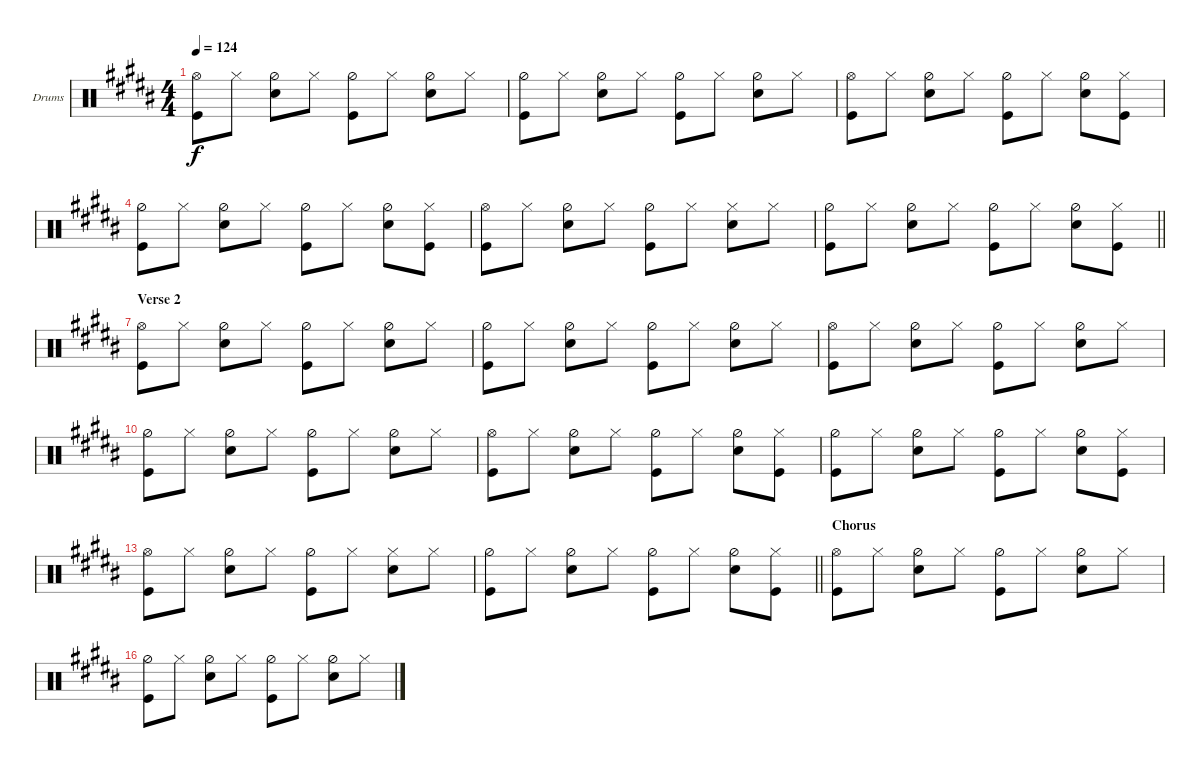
\bracketExtendMode nobrackets
\firstSystemTrackNameOrientation horizontal
\otherSystemsTrackNameOrientation horizontal
\defaultBarNumberDisplay FirstOfSystem
\track ("Drumkit" "Drums") {instrument percussion}
\staff {score}
\articulation defaults
\ts (4 4)
\tempo 124
\clef neutral
\ks g#minor
("Kick (hit)" "Hi-Hat (open)").8{dy f} "Hi-Hat (closed)".8 ("Hi-Hat (half)" "Snare (hit) 2").8 "Hi-Hat (closed)".8 ("Hi-Hat (half)" "Kick (hit)").8 "Hi-Hat (closed)".8 ("Hi-Hat (half)" "Snare (hit) 2").8 "Hi-Hat (closed)".8 |
("Kick (hit)" "Hi-Hat (half)").8 "Hi-Hat (closed)".8 ("Hi-Hat (half)" "Snare (hit) 2").8 "Hi-Hat (closed)".8 ("Hi-Hat (half)" "Kick (hit)").8 "Hi-Hat (closed)".8 ("Hi-Hat (half)" "Snare (hit) 2").8 "Hi-Hat (closed)".8 |
\ks b
("Kick (hit)" "Hi-Hat (open)").8 "Hi-Hat (closed)".8 ("Hi-Hat (half)" "Snare (hit) 2").8 "Hi-Hat (closed)".8 ("Hi-Hat (half)" "Kick (hit)").8 "Hi-Hat (closed)".8 ("Hi-Hat (half)" "Snare (hit) 2").8 ("Hi-Hat (closed)" "Kick (hit)").8 |
\ks g#minor
("Kick (hit)" "Hi-Hat (half)").8 "Hi-Hat (closed)".8 ("Hi-Hat (half)" "Snare (hit) 2").8 "Hi-Hat (closed)".8 ("Hi-Hat (half)" "Kick (hit)").8 "Hi-Hat (closed)".8 ("Hi-Hat (half)" "Snare (hit) 2").8 ("Hi-Hat (closed)" "Kick (hit)").8 |
("Kick (hit)" "Hi-Hat (open)").8 "Hi-Hat (closed)".8 ("Hi-Hat (half)" "Snare (hit) 2").8 "Hi-Hat (closed)".8 ("Hi-Hat (half)" "Kick (hit)").8 "Hi-Hat (closed)".8 ("Hi-Hat (closed)" "Snare (hit) 2").8 "Hi-Hat (closed)".8 |
\barLineRight lightlight
("Kick (hit)" "Hi-Hat (half)").8 "Hi-Hat (closed)".8 ("Hi-Hat (half)" "Snare (hit) 2").8 "Hi-Hat (closed)".8 ("Hi-Hat (half)" "Kick (hit)").8 "Hi-Hat (closed)".8 ("Hi-Hat (half)" "Snare (hit) 2").8 ("Hi-Hat (closed)" "Kick (hit)").8 |
\section ("" "Verse 2")
\ks b
("Kick (hit)" "Hi-Hat (open)").8 "Hi-Hat (closed)".8 ("Hi-Hat (half)" "Snare (hit) 2").8 "Hi-Hat (closed)".8 ("Hi-Hat (half)" "Kick (hit)").8 "Hi-Hat (closed)".8 ("Hi-Hat (half)" "Snare (hit) 2").8 "Hi-Hat (closed)".8 |
\ks g#minor
("Kick (hit)" "Hi-Hat (half)").8 "Hi-Hat (closed)".8 ("Hi-Hat (half)" "Snare (hit) 2").8 "Hi-Hat (closed)".8 ("Hi-Hat (half)" "Kick (hit)").8 "Hi-Hat (closed)".8 ("Hi-Hat (half)" "Snare (hit) 2").8 "Hi-Hat (closed)".8 |
("Kick (hit)" "Hi-Hat (open)").8 "Hi-Hat (closed)".8 ("Hi-Hat (half)" "Snare (hit) 2").8 "Hi-Hat (closed)".8 ("Hi-Hat (half)" "Kick (hit)").8 "Hi-Hat (closed)".8 ("Hi-Hat (half)" "Snare (hit) 2").8 "Hi-Hat (closed)".8 |
("Kick (hit)" "Hi-Hat (half)").8 "Hi-Hat (closed)".8 ("Hi-Hat (half)" "Snare (hit) 2").8 "Hi-Hat (closed)".8 ("Hi-Hat (half)" "Kick (hit)").8 "Hi-Hat (closed)".8 ("Hi-Hat (half)" "Snare (hit) 2").8 "Hi-Hat (closed)".8 |
\ks b
("Kick (hit)" "Hi-Hat (open)").8 "Hi-Hat (closed)".8 ("Hi-Hat (half)" "Snare (hit) 2").8 "Hi-Hat (closed)".8 ("Hi-Hat (half)" "Kick (hit)").8 "Hi-Hat (closed)".8 ("Hi-Hat (half)" "Snare (hit) 2").8 ("Hi-Hat (closed)" "Kick (hit)").8 |
\ks g#minor
("Kick (hit)" "Hi-Hat (half)").8 "Hi-Hat (closed)".8 ("Hi-Hat (half)" "Snare (hit) 2").8 "Hi-Hat (closed)".8 ("Hi-Hat (half)" "Kick (hit)").8 "Hi-Hat (closed)".8 ("Hi-Hat (half)" "Snare (hit) 2").8 ("Hi-Hat (closed)" "Kick (hit)").8 |
("Kick (hit)" "Hi-Hat (open)").8 "Hi-Hat (closed)".8 ("Hi-Hat (half)" "Snare (hit) 2").8 "Hi-Hat (closed)".8 ("Hi-Hat (half)" "Kick (hit)").8 "Hi-Hat (closed)".8 ("Hi-Hat (closed)" "Snare (hit) 2").8 "Hi-Hat (closed)".8 |
\barLineRight lightlight
("Kick (hit)" "Hi-Hat (half)").8 "Hi-Hat (closed)".8 ("Hi-Hat (half)" "Snare (hit) 2").8 "Hi-Hat (closed)".8 ("Hi-Hat (half)" "Kick (hit)").8 "Hi-Hat (closed)".8 ("Hi-Hat (half)" "Snare (hit) 2").8 ("Hi-Hat (closed)" "Kick (hit)").8 |
\section ("" "Chorus")
\ks b
("Kick (hit)" "Hi-Hat (open)").8 "Hi-Hat (closed)".8 ("Hi-Hat (half)" "Snare (hit) 2").8 "Hi-Hat (closed)".8 ("Hi-Hat (half)" "Kick (hit)").8 "Hi-Hat (closed)".8 ("Hi-Hat (half)" "Snare (hit) 2").8 "Hi-Hat (closed)".8 |
\ks g#minor
("Kick (hit)" "Hi-Hat (half)").8 "Hi-Hat (closed)".8 ("Hi-Hat (half)" "Snare (hit) 2").8 "Hi-Hat (closed)".8 ("Hi-Hat (half)" "Kick (hit)").8 "Hi-Hat (closed)".8 ("Hi-Hat (half)" "Snare (hit) 2").8 "Hi-Hat (closed)".8
